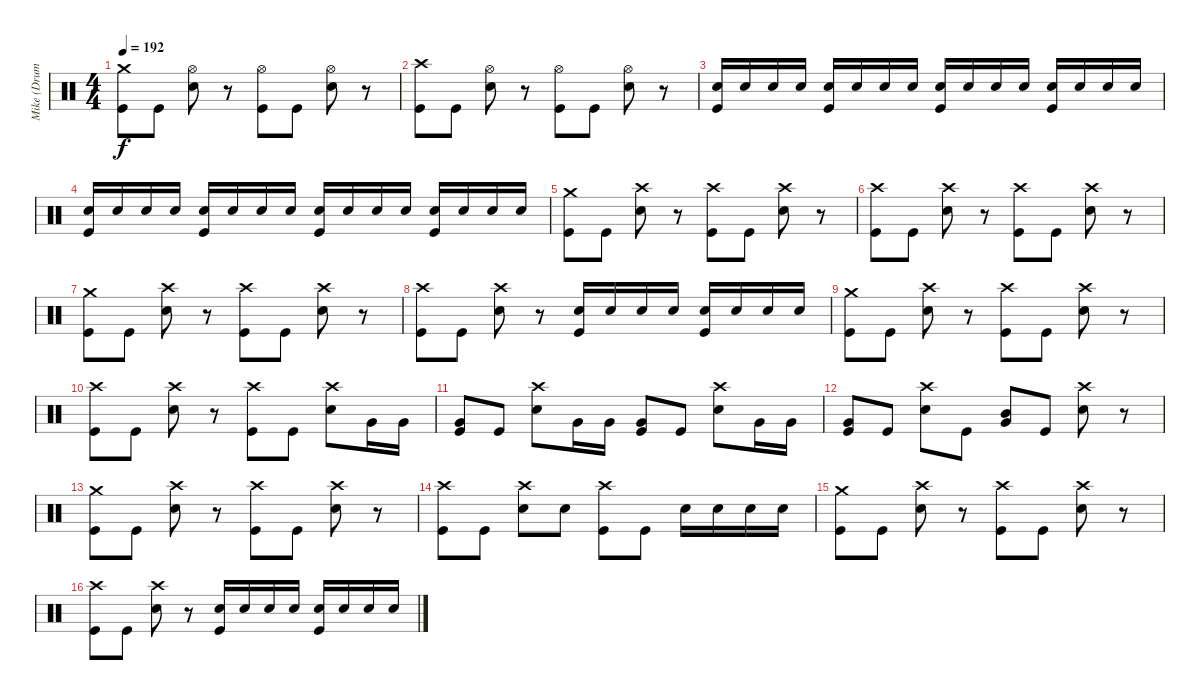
\track ("Mike (Drums)" "Mike (Drum") {instrument percussion}
\staff {score}
\articulation defaults
\ts (4 4)
\tempo 192
\clef neutral
\ks c
("Crash medium (hit)" "Kick (hit)").8{dy f} "Kick (hit)".8 ("Hi-Hat (open)" "Snare (hit) 2").8 r.8 ("Hi-Hat (open)" "Kick (hit)").8 "Kick (hit)".8 ("Hi-Hat (open)" "Snare (hit) 2").8 r.8 |
("Crash high (hit)" "Kick (hit)").8 "Kick (hit)".8 ("Hi-Hat (open)" "Snare (hit) 2").8 r.8 ("Hi-Hat (open)" "Kick (hit)").8 "Kick (hit)".8 ("Hi-Hat (open)" "Snare (hit) 2").8 r.8 |
("Snare (hit) 2" "Kick (hit)").16 "Snare (hit) 2".16 "Snare (hit) 2".16 "Snare (hit) 2".16 ("Snare (hit) 2" "Kick (hit)").16 "Snare (hit) 2".16 "Snare (hit) 2".16 "Snare (hit) 2".16 ("Snare (hit) 2" "Kick (hit)").16 "Snare (hit) 2".16 "Snare (hit) 2".16 "Snare (hit) 2".16 ("Snare (hit) 2" "Kick (hit)").16 "Snare (hit) 2".16 "Snare (hit) 2".16 "Snare (hit) 2".16 |
("Snare (hit) 2" "Kick (hit)").16 "Snare (hit) 2".16 "Snare (hit) 2".16 "Snare (hit) 2".16 ("Snare (hit) 2" "Kick (hit)").16 "Snare (hit) 2".16 "Snare (hit) 2".16 "Snare (hit) 2".16 ("Snare (hit) 2" "Kick (hit)").16 "Snare (hit) 2".16 "Snare (hit) 2".16 "Snare (hit) 2".16 ("Snare (hit) 2" "Kick (hit)").16 "Snare (hit) 2".16 "Snare (hit) 2".16 "Snare (hit) 2".16 |
("Crash medium (hit)" "Kick (hit)").8 "Kick (hit)".8 ("Crash high (hit)" "Snare (hit) 2").8 r.8 ("Crash high (hit)" "Kick (hit)").8 "Kick (hit)".8 ("Crash high (hit)" "Snare (hit) 2").8 r.8 |
("Crash high (hit)" "Kick (hit)").8 "Kick (hit)".8 ("Crash high (hit)" "Snare (hit) 2").8 r.8 ("Crash high (hit)" "Kick (hit)").8 "Kick (hit)".8 ("Crash high (hit)" "Snare (hit) 2").8 r.8 |
("Crash medium (hit)" "Kick (hit)").8 "Kick (hit)".8 ("Crash high (hit)" "Snare (hit) 2").8 r.8 ("Crash high (hit)" "Kick (hit)").8 "Kick (hit)".8 ("Crash high (hit)" "Snare (hit) 2").8 r.8 |
("Crash high (hit)" "Kick (hit)").8 "Kick (hit)".8 ("Crash high (hit)" "Snare (hit) 2").8 r.8 ("Snare (hit) 2" "Kick (hit)").16 "Snare (hit) 2".16 "Snare (hit) 2".16 "Snare (hit) 2".16 ("Snare (hit) 2" "Kick (hit)").16 "Snare (hit) 2".16 "Snare (hit) 2".16 "Snare (hit) 2".16 |
("Crash medium (hit)" "Kick (hit)").8 "Kick (hit)".8 ("Crash high (hit)" "Snare (hit) 2").8 r.8 ("Crash high (hit)" "Kick (hit)").8 "Kick (hit)".8 ("Crash high (hit)" "Snare (hit) 2").8 r.8 |
("Crash high (hit)" "Kick (hit)").8 "Kick (hit)".8 ("Crash high (hit)" "Snare (hit) 2").8 r.8 ("Crash high (hit)" "Kick (hit)").8 "Kick (hit)".8 ("Crash high (hit)" "Snare (hit) 2").8 "Very Low Tom (hit)".16 "Very Low Tom (hit)".16 |
("Very Low Tom (hit)" "Kick (hit)").8 "Kick (hit)".8 ("Crash high (hit)" "Snare (hit) 2").8 "Very Low Tom (hit)".16 "Very Low Tom (hit)".16 ("Very Low Tom (hit)" "Kick (hit)").8 "Kick (hit)".8 ("Crash high (hit)" "Snare (hit) 2").8 "Very Low Tom (hit)".16 "Very Low Tom (hit)".16 |
("Very Low Tom (hit)" "Kick (hit)").8 "Kick (hit)".8 ("Crash high (hit)" "Snare (hit) 2").8 "Kick (hit)".8 ("Mid Tom (hit)" "Very Low Tom (hit)").8 "Kick (hit)".8 ("Crash high (hit)" "Snare (hit) 2").8 r.8 |
("Crash medium (hit)" "Kick (hit)").8 "Kick (hit)".8 ("Crash high (hit)" "Snare (hit) 2").8 r.8 ("Crash high (hit)" "Kick (hit)").8 "Kick (hit)".8 ("Crash high (hit)" "Snare (hit) 2").8 r.8 |
("Crash high (hit)" "Kick (hit)").8 "Kick (hit)".8 ("Crash high (hit)" "Snare (hit) 2").8 "Snare (hit) 2".8 ("Crash high (hit)" "Kick (hit)").8 "Kick (hit)".8 "Snare (hit) 2".16 "Snare (hit) 2".16 "Snare (hit) 2".16 "Snare (hit) 2".16 |
("Crash medium (hit)" "Kick (hit)").8 "Kick (hit)".8 ("Crash high (hit)" "Snare (hit) 2").8 r.8 ("Crash high (hit)" "Kick (hit)").8 "Kick (hit)".8 ("Crash high (hit)" "Snare (hit) 2").8 r.8 |
("Crash high (hit)" "Kick (hit)").8 "Kick (hit)".8 ("Crash high (hit)" "Snare (hit) 2").8 r.8 ("Snare (hit) 2" "Kick (hit)").16 "Snare (hit) 2".16 "Snare (hit) 2".16 "Snare (hit) 2".16 ("Snare (hit) 2" "Kick (hit)").16 "Snare (hit) 2".16 "Snare (hit) 2".16 "Snare (hit) 2".16
